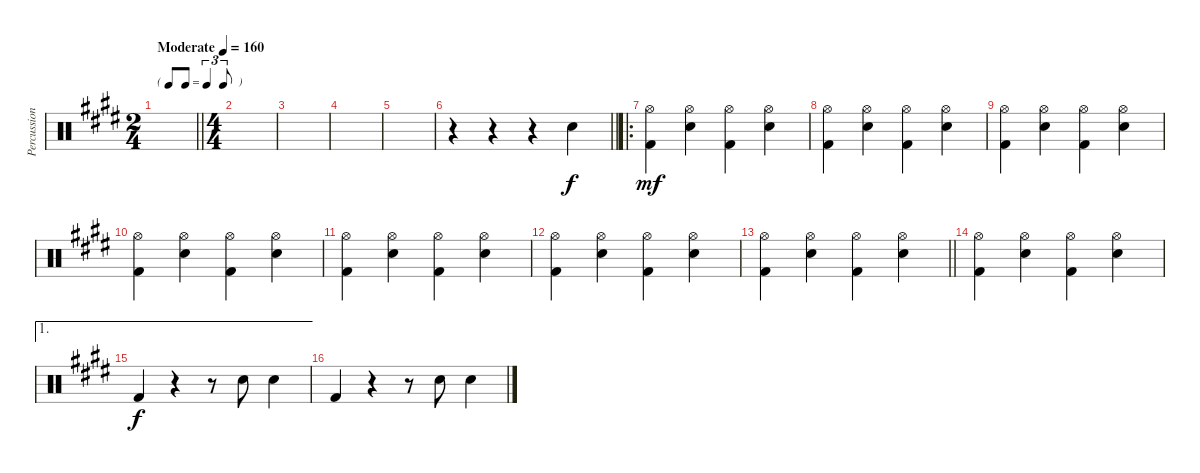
\track ("Percussion" "Percussion") {instrument percussion}
\staff {score}
\articulation defaults
\ts (2 4)
\tf triplet8th
\tempo (160 "Moderate")
\clef neutral
\barLineRight lightlight
\ks e
|
\ts (4 4)
|
|
|
|
\barLineRight lightlight
r.4 r.4 r.4 "Snare (hit) 2".4 |
\ro
("Hi-Hat (open)" "Kick (hit) 2").4{dy mf} ("Hi-Hat (open)" "Snare (hit) 2").4 ("Hi-Hat (open)" "Kick (hit) 2").4 ("Hi-Hat (open)" "Snare (hit) 2").4 |
("Hi-Hat (open)" "Kick (hit) 2").4 ("Hi-Hat (open)" "Snare (hit) 2").4 ("Hi-Hat (open)" "Kick (hit) 2").4 ("Hi-Hat (open)" "Snare (hit) 2").4 |
("Hi-Hat (open)" "Kick (hit) 2").4 ("Hi-Hat (open)" "Snare (hit) 2").4 ("Hi-Hat (open)" "Kick (hit) 2").4 ("Hi-Hat (open)" "Snare (hit) 2").4 |
("Hi-Hat (open)" "Kick (hit) 2").4 ("Hi-Hat (open)" "Snare (hit) 2").4 ("Hi-Hat (open)" "Kick (hit) 2").4 ("Hi-Hat (open)" "Snare (hit) 2").4 |
("Hi-Hat (open)" "Kick (hit) 2").4 ("Hi-Hat (open)" "Snare (hit) 2").4 ("Hi-Hat (open)" "Kick (hit) 2").4 ("Hi-Hat (open)" "Snare (hit) 2").4 |
("Hi-Hat (open)" "Kick (hit) 2").4 ("Hi-Hat (open)" "Snare (hit) 2").4 ("Hi-Hat (open)" "Kick (hit) 2").4 ("Hi-Hat (open)" "Snare (hit) 2").4 |
\barLineRight lightlight
("Hi-Hat (open)" "Kick (hit) 2").4 ("Hi-Hat (open)" "Snare (hit) 2").4 ("Hi-Hat (open)" "Kick (hit) 2").4 ("Hi-Hat (open)" "Snare (hit) 2").4 |
("Hi-Hat (open)" "Kick (hit) 2").4 ("Hi-Hat (open)" "Snare (hit) 2").4 ("Hi-Hat (open)" "Kick (hit) 2").4 ("Hi-Hat (open)" "Snare (hit) 2").4 |
\ae 1 "Kick (hit) 2".4{dy f}
r.4 r.8 "Snare (hit) 2".8 "Snare (hit) 2".4 |
"Kick (hit) 2".4 r.4 r.8 "Snare (hit) 2".8 "Snare (hit) 2".4
